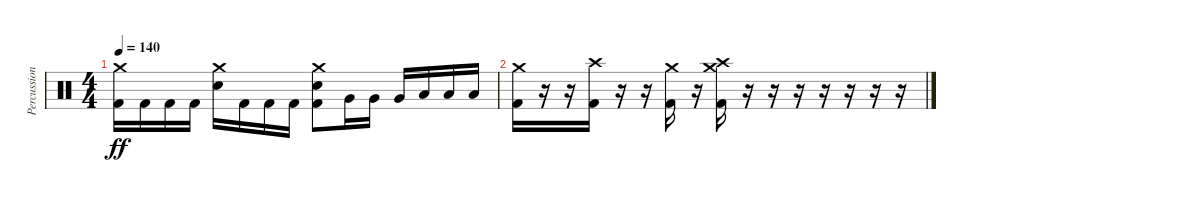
\track ("Percussion" "Percussion") {instrument percussion}
\staff {score}
\articulation defaults
\ts (4 4)
\tempo 140
\clef neutral
\ks c
("Crash medium (hit)" "Kick (hit) 2").16{dy ff} "Kick (hit) 2".16 "Kick (hit) 2".16 "Kick (hit) 2".16 ("Crash medium (hit)" "Electric Snare (hit)").16 "Kick (hit) 2".16 "Kick (hit) 2".16 "Kick (hit) 2".16 ("Crash medium (hit)" "Electric Snare (hit)" "Kick (hit) 2").8 "Very Low Tom (hit)".16 "Very Low Tom (hit)".16 "Very Low Tom (hit)".16 "Low Floor Tom (hit)".16 "Low Floor Tom (hit)".16 "Low Floor Tom (hit)".16 |
("Crash medium (hit)" "Kick (hit) 2").16 r.16 r.16 ("Crash high (hit)" "Kick (hit) 2").16 r.16 r.16 ("Crash medium (hit)" "Kick (hit) 2").16 r.16 ("Crash medium (hit)" "Crash high (hit)" "Kick (hit) 2").16 r.16 r.16 r.16 r.16 r.16 r.16 r.16
